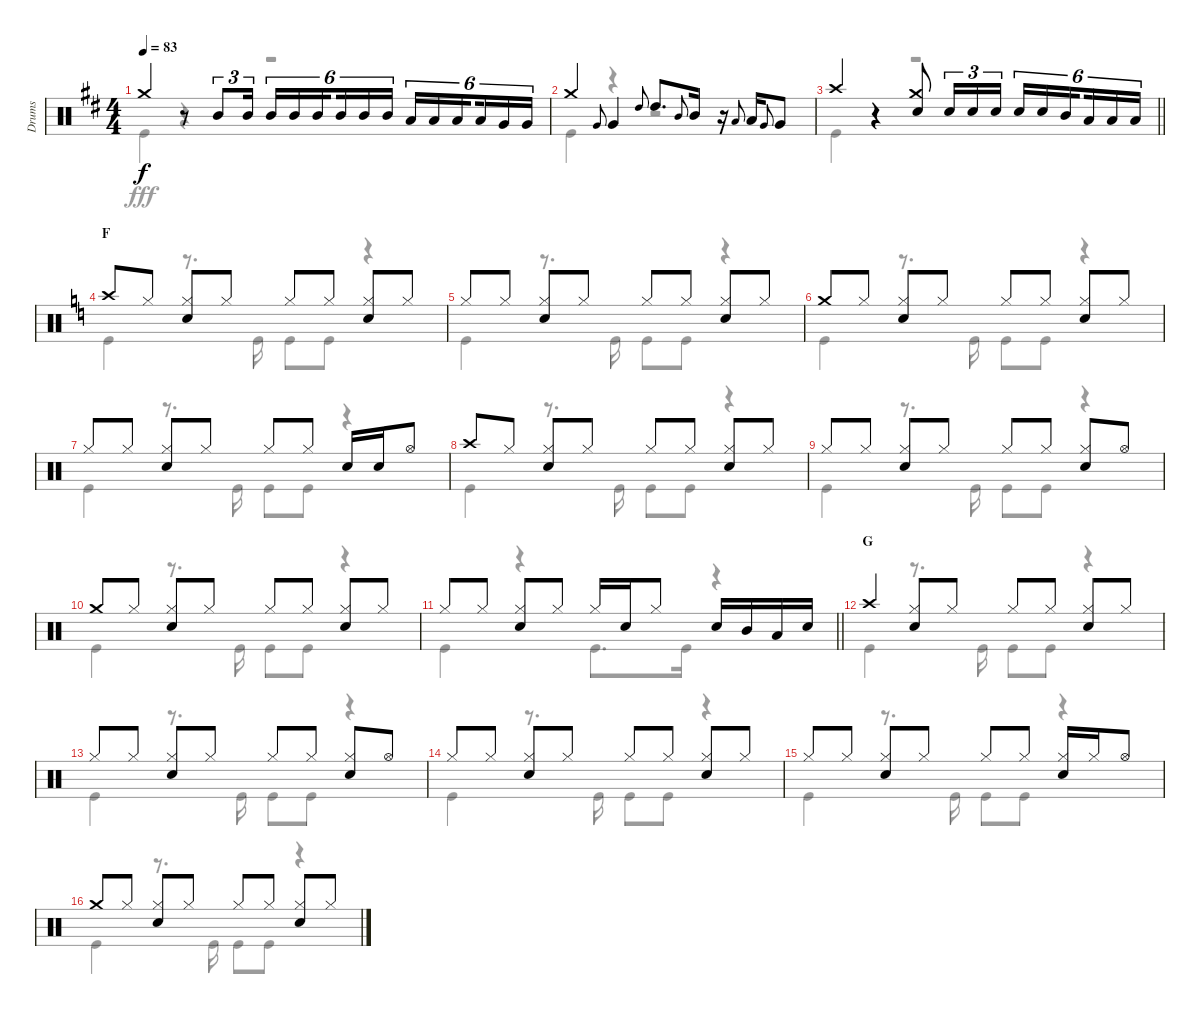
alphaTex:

\track ("Drums" "Drums") {instrument percussion}
\staff {score}
\articulation defaults
\voice
\ts (4 4)
\tempo 83
\clef neutral
\ks d "Crash medium (hit)".4{dy f}
r.8 "Mid Tom (hit)".8{tu (3 2)} "Mid Tom (hit)".16{tu (3 2)} "Mid Tom (hit)".16{tu (6 4)} "Mid Tom (hit)".16{tu (6 4)} "Mid Tom (hit)".16{tu (6 4) beam splitsecondary} "Mid Tom (hit)".16{tu (6 4)} "Mid Tom (hit)".16{tu (6 4)} "Mid Tom (hit)".16{tu (6 4)} "Low Tom (hit)".16{tu (6 4)} "Low Tom (hit)".16{tu (6 4)} "Low Tom (hit)".16{tu (6 4) beam splitsecondary} "Low Tom (hit)".16{tu (6 4)} "Very Low Tom (hit)".16{tu (6 4)} "Very Low Tom (hit)".16{tu (6 4)} |
"Crash medium (hit)".4 "Very Low Tom (hit)".8{gr onbeat} "Very Low Tom (hit)".4 "High Tom (hit)".8{gr onbeat} "High Tom (hit)".8{d} "Mid Tom (hit)".8{gr onbeat} "Mid Tom (hit)".16 r.16 "Low Tom (hit)".8{gr onbeat} "Low Tom (hit)".16 "Very Low Tom (hit)".8{gr onbeat} "Very Low Tom (hit)".8 |
\barLineRight lightlight "Crash high (hit)".4
r.4 ("Crash medium (hit)" "Snare (hit) 2").8 "Snare (hit) 2".16{tu (3 2)} "Snare (hit) 2".16{tu (3 2)} "Snare (hit) 2".16{tu (3 2)} "Snare (hit) 2".16{tu (6 4)} "Snare (hit) 2".16{tu (6 4)} "Mid Tom (hit)".16{tu (6 4) beam splitsecondary} "Low Tom (hit)".16{tu (6 4)} "Low Tom (hit)".16{tu (6 4)} "Low Tom (hit)".16{tu (6 4)} |
\section ("" "F")
\ks c "Crash high (hit)".8 "Hi-Hat (closed)".8
("Hi-Hat (closed)" "Snare (hit) 2").8 "Hi-Hat (closed)".8 "Hi-Hat (closed)".8 "Hi-Hat (closed)".8 ("Hi-Hat (closed)" "Snare (hit) 2").8 "Hi-Hat (closed)".8 |
"Hi-Hat (closed)".8 "Hi-Hat (closed)".8 ("Hi-Hat (closed)" "Snare (hit) 2").8 "Hi-Hat (closed)".8 "Hi-Hat (closed)".8 "Hi-Hat (closed)".8 ("Hi-Hat (closed)" "Snare (hit) 2").8 "Hi-Hat (closed)".8 |
"Crash medium (hit)".8 "Hi-Hat (closed)".8 ("Hi-Hat (closed)" "Snare (hit) 2").8 "Hi-Hat (closed)".8 "Hi-Hat (closed)".8 "Hi-Hat (closed)".8 ("Hi-Hat (closed)" "Snare (hit) 2").8 "Hi-Hat (closed)".8 |
"Hi-Hat (closed)".8 "Hi-Hat (closed)".8 ("Hi-Hat (closed)" "Snare (hit) 2").8 "Hi-Hat (closed)".8 "Hi-Hat (closed)".8 "Hi-Hat (closed)".8 "Snare (hit) 2".16 "Snare (hit) 2".16 "Hi-Hat (open)".8 |
"Crash high (hit)".8 "Hi-Hat (closed)".8 ("Hi-Hat (closed)" "Snare (hit) 2").8 "Hi-Hat (closed)".8 "Hi-Hat (closed)".8 "Hi-Hat (closed)".8 ("Hi-Hat (closed)" "Snare (hit) 2").8 "Hi-Hat (closed)".8 |
"Hi-Hat (closed)".8 "Hi-Hat (closed)".8 ("Hi-Hat (closed)" "Snare (hit) 2").8 "Hi-Hat (closed)".8 "Hi-Hat (closed)".8 "Hi-Hat (closed)".8 ("Hi-Hat (closed)" "Snare (hit) 2").8 "Hi-Hat (open)".8 |
"Crash medium (hit)".8 "Hi-Hat (closed)".8 ("Hi-Hat (closed)" "Snare (hit) 2").8 "Hi-Hat (closed)".8 "Hi-Hat (closed)".8 "Hi-Hat (closed)".8 ("Hi-Hat (closed)" "Snare (hit) 2").8 "Hi-Hat (closed)".8 |
\barLineRight lightlight "Hi-Hat (closed)".8 "Hi-Hat (closed)".8
("Hi-Hat (closed)" "Snare (hit) 2").8 "Hi-Hat (closed)".8 "Hi-Hat (closed)".16 "Snare (hit) 2".16 "Hi-Hat (closed)".8 "Snare (hit) 2".16 "Mid Tom (hit)".16 "Low Tom (hit)".16 "Snare (hit) 2".16 |
\section ("" "G")
"Crash high (hit)".4 ("Hi-Hat (closed)" "Snare (hit) 2").8 "Hi-Hat (closed)".8 "Hi-Hat (closed)".8 "Hi-Hat (closed)".8 ("Hi-Hat (closed)" "Snare (hit) 2").8 "Hi-Hat (closed)".8 |
"Hi-Hat (closed)".8 "Hi-Hat (closed)".8 ("Hi-Hat (closed)" "Snare (hit) 2").8 "Hi-Hat (closed)".8 "Hi-Hat (closed)".8 "Hi-Hat (closed)".8 ("Hi-Hat (closed)" "Snare (hit) 2").8 "Hi-Hat (open)".8 |
"Hi-Hat (closed)".8 "Hi-Hat (closed)".8 ("Hi-Hat (closed)" "Snare (hit) 2").8 "Hi-Hat (closed)".8 "Hi-Hat (closed)".8 "Hi-Hat (closed)".8 ("Hi-Hat (closed)" "Snare (hit) 2").8 "Hi-Hat (closed)".8 |
"Hi-Hat (closed)".8 "Hi-Hat (closed)".8 ("Hi-Hat (closed)" "Snare (hit) 2").8 "Hi-Hat (closed)".8 "Hi-Hat (closed)".8 "Hi-Hat (closed)".8 ("Snare (hit) 2" "Hi-Hat (closed)").16 "Hi-Hat (closed)".16 "Hi-Hat (open)".8 |
"Crash medium (hit)".8 "Hi-Hat (closed)".8 ("Hi-Hat (closed)" "Snare (hit) 2").8 "Hi-Hat (closed)".8 "Hi-Hat (closed)".8 "Hi-Hat (closed)".8 ("Hi-Hat (closed)" "Snare (hit) 2").8 "Hi-Hat (closed)".8
\voice
\clef neutral
\ottava regular
\simile none
\ks d "Kick (hit)".4{dy fff}
r.4 r.2 |
"Kick (hit)".4 r.4 r.2 |
\barLineRight lightlight "Kick (hit)".4
r.4 r.2 |
\ks c "Kick (hit)".4
r.8{d} "Kick (hit)".16 "Kick (hit)".8 "Kick (hit)".8 r.4 |
"Kick (hit)".4 r.8{d} "Kick (hit)".16 "Kick (hit)".8 "Kick (hit)".8 r.4 |
"Kick (hit)".4 r.8{d} "Kick (hit)".16 "Kick (hit)".8 "Kick (hit)".8 r.4 |
"Kick (hit)".4 r.8{d} "Kick (hit)".16 "Kick (hit)".8 "Kick (hit)".8 r.4 |
"Kick (hit)".4 r.8{d} "Kick (hit)".16 "Kick (hit)".8 "Kick (hit)".8 r.4 |
"Kick (hit)".4 r.8{d} "Kick (hit)".16 "Kick (hit)".8 "Kick (hit)".8 r.4 |
"Kick (hit)".4 r.8{d} "Kick (hit)".16 "Kick (hit)".8 "Kick (hit)".8 r.4 |
\barLineRight lightlight "Kick (hit)".4
r.4 "Kick (hit)".8{d} "Kick (hit)".16 r.4 |
"Kick (hit)".4 r.8{d} "Kick (hit)".16 "Kick (hit)".8 "Kick (hit)".8 r.4 |
"Kick (hit)".4 r.8{d} "Kick (hit)".16 "Kick (hit)".8 "Kick (hit)".8 r.4 |
"Kick (hit)".4 r.8{d} "Kick (hit)".16 "Kick (hit)".8 "Kick (hit)".8 r.4 |
"Kick (hit)".4 r.8{d} "Kick (hit)".16 "Kick (hit)".8 "Kick (hit)".8 r.4 |
"Kick (hit)".4 r.8{d} "Kick (hit)".16 "Kick (hit)".8 "Kick (hit)".8 r.4
